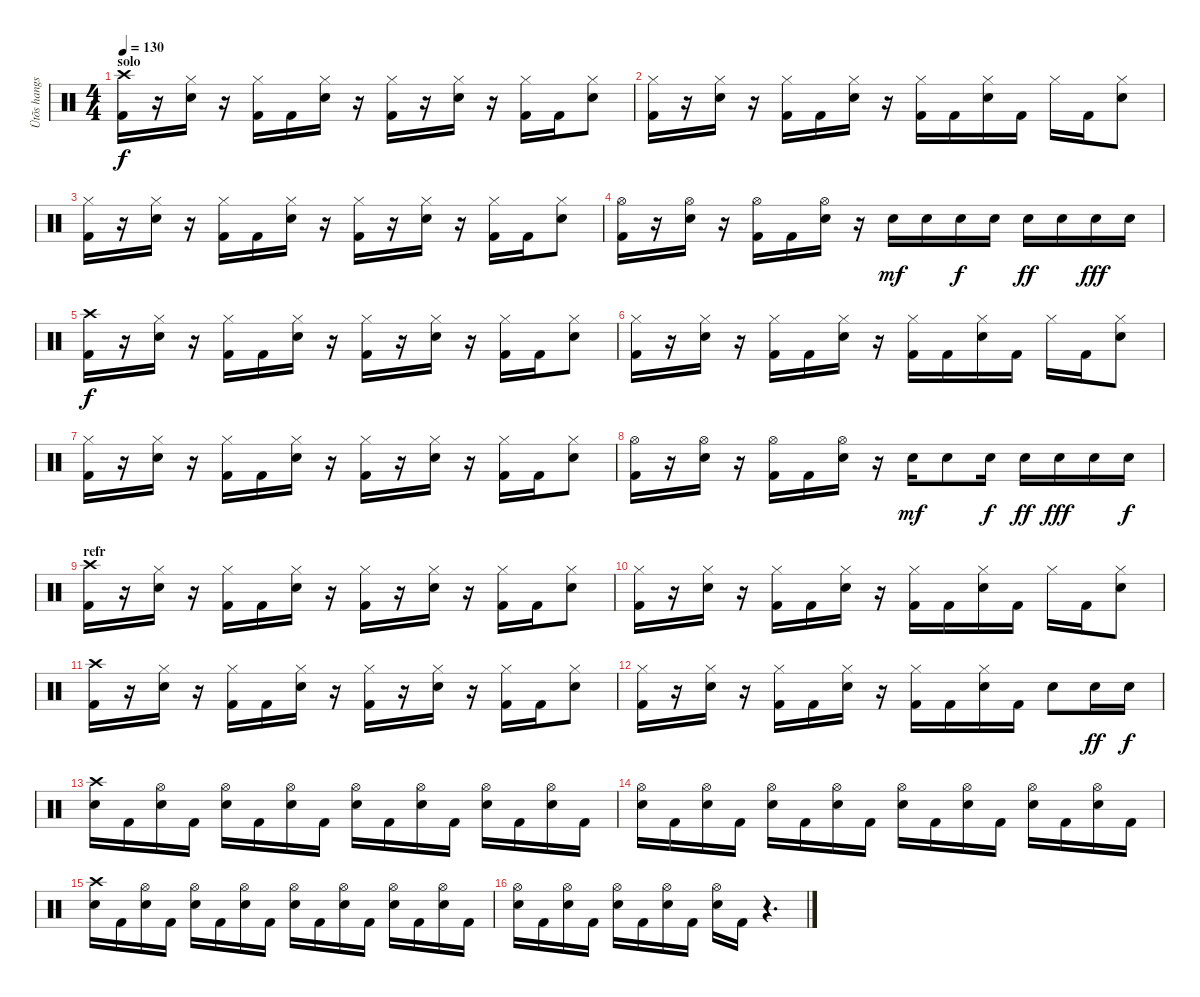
\track ("Ütõs hangszer" "Ütõs hangs") {instrument percussion}
\staff {score}
\articulation defaults
\ts (4 4)
\section ("" "solo")
\tempo 130
\clef neutral
\ks c
("Crash high (hit)" "Kick (hit) 2").16{dy f} r.16 ("Hi-Hat (closed)" "Snare (hit) 2").16 r.16 ("Hi-Hat (closed)" "Kick (hit) 2").16 "Kick (hit) 2".16 ("Hi-Hat (closed)" "Snare (hit) 2").16 r.16 ("Hi-Hat (closed)" "Kick (hit) 2").16 r.16 ("Hi-Hat (closed)" "Snare (hit) 2").16 r.16 ("Hi-Hat (closed)" "Kick (hit) 2").16 "Kick (hit) 2".16 ("Hi-Hat (closed)" "Snare (hit) 2").8 |
("Hi-Hat (closed)" "Kick (hit) 2").16 r.16 ("Hi-Hat (closed)" "Snare (hit) 2").16 r.16 ("Hi-Hat (closed)" "Kick (hit) 2").16 "Kick (hit) 2".16 ("Hi-Hat (closed)" "Snare (hit) 2").16 r.16 ("Hi-Hat (closed)" "Kick (hit) 2").16 "Kick (hit) 2".16 ("Hi-Hat (closed)" "Snare (hit) 2").16 "Kick (hit) 2".16 "Hi-Hat (closed)".16 "Kick (hit) 2".16 ("Hi-Hat (closed)" "Snare (hit) 2").8 |
("Hi-Hat (closed)" "Kick (hit) 2").16 r.16 ("Hi-Hat (closed)" "Snare (hit) 2").16 r.16 ("Hi-Hat (closed)" "Kick (hit) 2").16 "Kick (hit) 2".16 ("Hi-Hat (closed)" "Snare (hit) 2").16 r.16 ("Hi-Hat (closed)" "Kick (hit) 2").16 r.16 ("Hi-Hat (closed)" "Snare (hit) 2").16 r.16 ("Hi-Hat (closed)" "Kick (hit) 2").16 "Kick (hit) 2".16 ("Hi-Hat (closed)" "Snare (hit) 2").8 |
("Hi-Hat (open)" "Kick (hit) 2").16 r.16 ("Hi-Hat (open)" "Snare (hit) 2").16 r.16 ("Hi-Hat (open)" "Kick (hit) 2").16 "Kick (hit) 2".16 ("Hi-Hat (open)" "Snare (hit) 2").16 r.16 "Snare (hit) 2".16{dy mf} "Snare (hit) 2".16 "Snare (hit) 2".16{dy f} "Snare (hit) 2".16 "Snare (hit) 2".16{dy ff} "Snare (hit) 2".16 "Snare (hit) 2".16{dy fff} "Snare (hit) 2".16 |
("Crash high (hit)" "Kick (hit) 2").16{dy f} r.16 ("Hi-Hat (closed)" "Snare (hit) 2").16 r.16 ("Hi-Hat (closed)" "Kick (hit) 2").16 "Kick (hit) 2".16 ("Hi-Hat (closed)" "Snare (hit) 2").16 r.16 ("Hi-Hat (closed)" "Kick (hit) 2").16 r.16 ("Hi-Hat (closed)" "Snare (hit) 2").16 r.16 ("Hi-Hat (closed)" "Kick (hit) 2").16 "Kick (hit) 2".16 ("Hi-Hat (closed)" "Snare (hit) 2").8 |
("Hi-Hat (closed)" "Kick (hit) 2").16 r.16 ("Hi-Hat (closed)" "Snare (hit) 2").16 r.16 ("Hi-Hat (closed)" "Kick (hit) 2").16 "Kick (hit) 2".16 ("Hi-Hat (closed)" "Snare (hit) 2").16 r.16 ("Hi-Hat (closed)" "Kick (hit) 2").16 "Kick (hit) 2".16 ("Hi-Hat (closed)" "Snare (hit) 2").16 "Kick (hit) 2".16 "Hi-Hat (closed)".16 "Kick (hit) 2".16 ("Hi-Hat (closed)" "Snare (hit) 2").8 |
("Hi-Hat (closed)" "Kick (hit) 2").16 r.16 ("Hi-Hat (closed)" "Snare (hit) 2").16 r.16 ("Hi-Hat (closed)" "Kick (hit) 2").16 "Kick (hit) 2".16 ("Hi-Hat (closed)" "Snare (hit) 2").16 r.16 ("Hi-Hat (closed)" "Kick (hit) 2").16 r.16 ("Hi-Hat (closed)" "Snare (hit) 2").16 r.16 ("Hi-Hat (closed)" "Kick (hit) 2").16 "Kick (hit) 2".16 ("Hi-Hat (closed)" "Snare (hit) 2").8 |
("Hi-Hat (open)" "Kick (hit) 2").16 r.16 ("Hi-Hat (open)" "Snare (hit) 2").16 r.16 ("Hi-Hat (open)" "Kick (hit) 2").16 "Kick (hit) 2".16 ("Hi-Hat (open)" "Snare (hit) 2").16 r.16 "Snare (hit) 2".16{dy mf} "Snare (hit) 2".8 "Snare (hit) 2".16{dy f} "Snare (hit) 2".16{dy ff} "Snare (hit) 2".16{dy fff} "Snare (hit) 2".16 "Snare (hit) 2".16{dy f} |
\section ("" "refr")
("Crash high (hit)" "Kick (hit) 2").16 r.16 ("Hi-Hat (closed)" "Snare (hit) 2").16 r.16 ("Hi-Hat (closed)" "Kick (hit) 2").16 "Kick (hit) 2".16 ("Hi-Hat (closed)" "Snare (hit) 2").16 r.16 ("Hi-Hat (closed)" "Kick (hit) 2").16 r.16 ("Hi-Hat (closed)" "Snare (hit) 2").16 r.16 ("Hi-Hat (closed)" "Kick (hit) 2").16 "Kick (hit) 2".16 ("Hi-Hat (closed)" "Snare (hit) 2").8 |
("Hi-Hat (closed)" "Kick (hit) 2").16 r.16 ("Hi-Hat (closed)" "Snare (hit) 2").16 r.16 ("Hi-Hat (closed)" "Kick (hit) 2").16 "Kick (hit) 2".16 ("Hi-Hat (closed)" "Snare (hit) 2").16 r.16 ("Hi-Hat (closed)" "Kick (hit) 2").16 "Kick (hit) 2".16 ("Hi-Hat (closed)" "Snare (hit) 2").16 "Kick (hit) 2".16 "Hi-Hat (closed)".16 "Kick (hit) 2".16 ("Hi-Hat (closed)" "Snare (hit) 2").8 |
("Crash high (hit)" "Kick (hit) 2").16 r.16 ("Hi-Hat (closed)" "Snare (hit) 2").16 r.16 ("Hi-Hat (closed)" "Kick (hit) 2").16 "Kick (hit) 2".16 ("Hi-Hat (closed)" "Snare (hit) 2").16 r.16 ("Hi-Hat (closed)" "Kick (hit) 2").16 r.16 ("Hi-Hat (closed)" "Snare (hit) 2").16 r.16 ("Hi-Hat (closed)" "Kick (hit) 2").16 "Kick (hit) 2".16 ("Hi-Hat (closed)" "Snare (hit) 2").8 |
("Hi-Hat (closed)" "Kick (hit) 2").16 r.16 ("Hi-Hat (closed)" "Snare (hit) 2").16 r.16 ("Hi-Hat (closed)" "Kick (hit) 2").16 "Kick (hit) 2".16 ("Hi-Hat (closed)" "Snare (hit) 2").16 r.16 ("Hi-Hat (closed)" "Kick (hit) 2").16 "Kick (hit) 2".16 ("Hi-Hat (closed)" "Snare (hit) 2").16 "Kick (hit) 2".16 "Snare (hit) 2".8 "Snare (hit) 2".16{dy ff} "Snare (hit) 2".16{dy f} |
("Crash high (hit)" "Snare (hit) 2").16 "Kick (hit) 2".16 ("Hi-Hat (open)" "Snare (hit) 2").16 "Kick (hit) 2".16 ("Hi-Hat (open)" "Snare (hit) 2").16 "Kick (hit) 2".16 ("Hi-Hat (open)" "Snare (hit) 2").16 "Kick (hit) 2".16 ("Hi-Hat (open)" "Snare (hit) 2").16 "Kick (hit) 2".16 ("Hi-Hat (open)" "Snare (hit) 2").16 "Kick (hit) 2".16 ("Hi-Hat (open)" "Snare (hit) 2").16 "Kick (hit) 2".16 ("Hi-Hat (open)" "Snare (hit) 2").16 "Kick (hit) 2".16 |
("Hi-Hat (open)" "Snare (hit) 2").16 "Kick (hit) 2".16 ("Hi-Hat (open)" "Snare (hit) 2").16 "Kick (hit) 2".16 ("Hi-Hat (open)" "Snare (hit) 2").16 "Kick (hit) 2".16 ("Hi-Hat (open)" "Snare (hit) 2").16 "Kick (hit) 2".16 ("Hi-Hat (open)" "Snare (hit) 2").16 "Kick (hit) 2".16 ("Hi-Hat (open)" "Snare (hit) 2").16 "Kick (hit) 2".16 ("Hi-Hat (open)" "Snare (hit) 2").16 "Kick (hit) 2".16 ("Hi-Hat (open)" "Snare (hit) 2").16 "Kick (hit) 2".16 |
("Crash high (hit)" "Snare (hit) 2").16 "Kick (hit) 2".16 ("Hi-Hat (open)" "Snare (hit) 2").16 "Kick (hit) 2".16 ("Hi-Hat (open)" "Snare (hit) 2").16 "Kick (hit) 2".16 ("Hi-Hat (open)" "Snare (hit) 2").16 "Kick (hit) 2".16 ("Hi-Hat (open)" "Snare (hit) 2").16 "Kick (hit) 2".16 ("Hi-Hat (open)" "Snare (hit) 2").16 "Kick (hit) 2".16 ("Hi-Hat (open)" "Snare (hit) 2").16 "Kick (hit) 2".16 ("Hi-Hat (open)" "Snare (hit) 2").16 "Kick (hit) 2".16 |
("Hi-Hat (open)" "Snare (hit) 2").16 "Kick (hit) 2".16 ("Hi-Hat (open)" "Snare (hit) 2").16 "Kick (hit) 2".16 ("Hi-Hat (open)" "Snare (hit) 2").16 "Kick (hit) 2".16 ("Hi-Hat (open)" "Snare (hit) 2").16 "Kick (hit) 2".16 ("Hi-Hat (open)" "Snare (hit) 2").16 "Kick (hit) 2".16 r.4{d}
